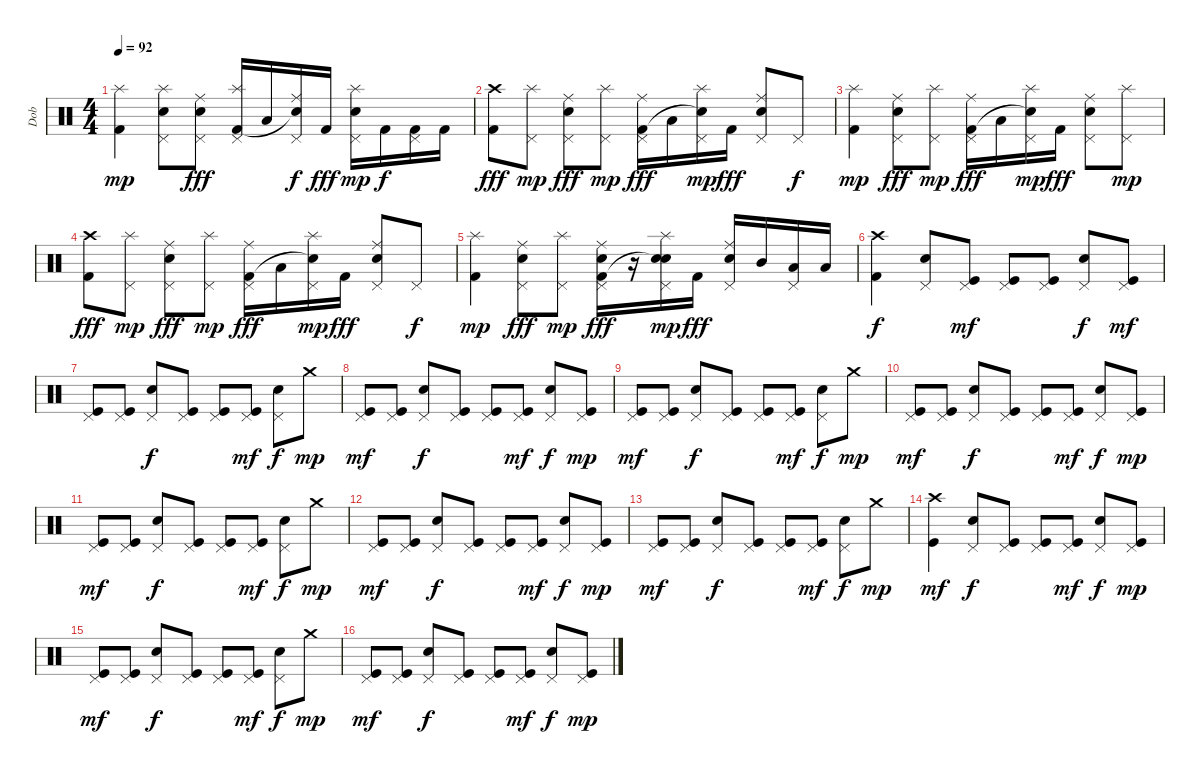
\track ("Dob" "Dob") {instrument percussion}
\staff {score}
\articulation defaults
\ts (4 4)
\tempo 92
\clef neutral
\ks c
("Kick (hit) 2" "Splash (hit)").4{dy mp} ("Electric Snare (hit)" "Splash (hit)" "Pedal Hi-Hat (hit)").8 ("Electric Snare (hit)" "Ride (middle)" "Pedal Hi-Hat (hit)").8{dy fff} ("Splash (hit)" "Kick (hit) 2" "Pedal Hi-Hat (hit)").16 "Low Tom (hit)".16 ("Ride (middle)" "Snare (hit)"{t} "Pedal Hi-Hat (hit)").16{dy f} "Kick (hit) 2".16{dy fff} ("Electric Snare (hit)" "Splash (hit)" "Pedal Hi-Hat (hit)").16{dy mp} "Kick (hit) 2".16{dy f} ("Kick (hit) 2" "Pedal Hi-Hat (hit)").16 "Kick (hit) 2".16 |
("Kick (hit) 2" "Crash high (hit)").8{dy fff} ("Splash (hit)" "Pedal Hi-Hat (hit)").8{dy mp} ("Electric Snare (hit)" "Ride (middle)" "Pedal Hi-Hat (hit)").8{dy fff} ("Splash (hit)" "Pedal Hi-Hat (hit)").8{dy mp} ("Ride (middle)" "Kick (hit) 2" "Pedal Hi-Hat (hit)").16{dy fff} "Low Tom (hit)".16 ("Splash (hit)" "Snare (hit)"{t} "Pedal Hi-Hat (hit)").16{dy mp} "Kick (hit) 2".16{dy fff} ("Electric Snare (hit)" "Ride (middle)" "Pedal Hi-Hat (hit)").8 "Pedal Hi-Hat (hit)".8{dy f} |
("Kick (hit) 2" "Splash (hit)").4{dy mp} ("Electric Snare (hit)" "Ride (middle)" "Pedal Hi-Hat (hit)").8{dy fff} ("Splash (hit)" "Pedal Hi-Hat (hit)").8{dy mp} ("Ride (middle)" "Kick (hit) 2" "Pedal Hi-Hat (hit)").16{dy fff} "Low Tom (hit)".16 ("Splash (hit)" "Snare (hit)"{t} "Pedal Hi-Hat (hit)").16{dy mp} "Kick (hit) 2".16{dy fff} ("Electric Snare (hit)" "Ride (middle)" "Pedal Hi-Hat (hit)").8 ("Splash (hit)" "Pedal Hi-Hat (hit)").8{dy mp} |
("Kick (hit) 2" "Crash high (hit)").8{dy fff} ("Splash (hit)" "Pedal Hi-Hat (hit)").8{dy mp} ("Electric Snare (hit)" "Ride (middle)" "Pedal Hi-Hat (hit)").8{dy fff} ("Splash (hit)" "Pedal Hi-Hat (hit)").8{dy mp} ("Ride (middle)" "Kick (hit) 2" "Pedal Hi-Hat (hit)").16{dy fff} "Low Tom (hit)".16 ("Splash (hit)" "Snare (hit)"{t} "Pedal Hi-Hat (hit)").16{dy mp} "Kick (hit) 2".16{dy fff} ("Electric Snare (hit)" "Ride (middle)" "Pedal Hi-Hat (hit)").8 "Pedal Hi-Hat (hit)".8{dy f} |
("Kick (hit) 2" "Splash (hit)").4{dy mp} ("Electric Snare (hit)" "Ride (middle)" "Pedal Hi-Hat (hit)").8{dy fff} ("Splash (hit)" "Pedal Hi-Hat (hit)").8{dy mp} ("Electric Snare (hit)" "Ride (middle)" "Kick (hit) 2" "Pedal Hi-Hat (hit)").16{dy fff} r.16 ("Electric Snare (hit)" "Splash (hit)" "Snare (hit)"{t} "Pedal Hi-Hat (hit)").16{dy mp} "Kick (hit) 2".16{dy fff} ("Electric Snare (hit)" "Ride (middle)" "Pedal Hi-Hat (hit)").16 "Mid Tom (hit)".16 ("Low Tom (hit)" "Pedal Hi-Hat (hit)").16 "Low Tom (hit)".16 |
("Kick (hit) 2" "Crash high (hit)").4{dy f} ("Electric Snare (hit)" "Pedal Hi-Hat (hit)").8 ("Kick (hit)" "Pedal Hi-Hat (hit)").8{dy mf} ("Kick (hit)" "Pedal Hi-Hat (hit)").8 ("Kick (hit)" "Pedal Hi-Hat (hit)").8 ("Electric Snare (hit)" "Pedal Hi-Hat (hit)").8{dy f} ("Kick (hit)" "Pedal Hi-Hat (hit)").8{dy mf} |
("Kick (hit)" "Pedal Hi-Hat (hit)").8 ("Kick (hit)" "Pedal Hi-Hat (hit)").8 ("Electric Snare (hit)" "Pedal Hi-Hat (hit)").8{dy f} ("Kick (hit)" "Pedal Hi-Hat (hit)").8 ("Kick (hit)" "Pedal Hi-Hat (hit)").8 ("Kick (hit)" "Pedal Hi-Hat (hit)").8{dy mf} ("Electric Snare (hit)" "Pedal Hi-Hat (hit)").8{dy f} "Crash medium (hit)".8{dy mp} |
("Kick (hit)" "Pedal Hi-Hat (hit)").8{dy mf} ("Kick (hit)" "Pedal Hi-Hat (hit)").8 ("Electric Snare (hit)" "Pedal Hi-Hat (hit)").8{dy f} ("Kick (hit)" "Pedal Hi-Hat (hit)").8 ("Kick (hit)" "Pedal Hi-Hat (hit)").8 ("Kick (hit)" "Pedal Hi-Hat (hit)").8{dy mf} ("Electric Snare (hit)" "Pedal Hi-Hat (hit)").8{dy f} ("Kick (hit)" "Pedal Hi-Hat (hit)").8{dy mp} |
("Kick (hit)" "Pedal Hi-Hat (hit)").8{dy mf} ("Kick (hit)" "Pedal Hi-Hat (hit)").8 ("Electric Snare (hit)" "Pedal Hi-Hat (hit)").8{dy f} ("Kick (hit)" "Pedal Hi-Hat (hit)").8 ("Kick (hit)" "Pedal Hi-Hat (hit)").8 ("Kick (hit)" "Pedal Hi-Hat (hit)").8{dy mf} ("Electric Snare (hit)" "Pedal Hi-Hat (hit)").8{dy f} "Crash medium (hit)".8{dy mp} |
("Kick (hit)" "Pedal Hi-Hat (hit)").8{dy mf} ("Kick (hit)" "Pedal Hi-Hat (hit)").8 ("Electric Snare (hit)" "Pedal Hi-Hat (hit)").8{dy f} ("Kick (hit)" "Pedal Hi-Hat (hit)").8 ("Kick (hit)" "Pedal Hi-Hat (hit)").8 ("Kick (hit)" "Pedal Hi-Hat (hit)").8{dy mf} ("Electric Snare (hit)" "Pedal Hi-Hat (hit)").8{dy f} ("Kick (hit)" "Pedal Hi-Hat (hit)").8{dy mp} |
("Kick (hit)" "Pedal Hi-Hat (hit)").8{dy mf} ("Kick (hit)" "Pedal Hi-Hat (hit)").8 ("Electric Snare (hit)" "Pedal Hi-Hat (hit)").8{dy f} ("Kick (hit)" "Pedal Hi-Hat (hit)").8 ("Kick (hit)" "Pedal Hi-Hat (hit)").8 ("Kick (hit)" "Pedal Hi-Hat (hit)").8{dy mf} ("Electric Snare (hit)" "Pedal Hi-Hat (hit)").8{dy f} "Crash medium (hit)".8{dy mp} |
("Kick (hit)" "Pedal Hi-Hat (hit)").8{dy mf} ("Kick (hit)" "Pedal Hi-Hat (hit)").8 ("Electric Snare (hit)" "Pedal Hi-Hat (hit)").8{dy f} ("Kick (hit)" "Pedal Hi-Hat (hit)").8 ("Kick (hit)" "Pedal Hi-Hat (hit)").8 ("Kick (hit)" "Pedal Hi-Hat (hit)").8{dy mf} ("Electric Snare (hit)" "Pedal Hi-Hat (hit)").8{dy f} ("Kick (hit)" "Pedal Hi-Hat (hit)").8{dy mp} |
("Kick (hit)" "Pedal Hi-Hat (hit)").8{dy mf} ("Kick (hit)" "Pedal Hi-Hat (hit)").8 ("Electric Snare (hit)" "Pedal Hi-Hat (hit)").8{dy f} ("Kick (hit)" "Pedal Hi-Hat (hit)").8 ("Kick (hit)" "Pedal Hi-Hat (hit)").8 ("Kick (hit)" "Pedal Hi-Hat (hit)").8{dy mf} ("Electric Snare (hit)" "Pedal Hi-Hat (hit)").8{dy f} "Crash medium (hit)".8{dy mp} |
("Kick (hit)" "Crash high (hit)").4{dy mf} ("Electric Snare (hit)" "Pedal Hi-Hat (hit)").8{dy f} ("Kick (hit)" "Pedal Hi-Hat (hit)").8 ("Kick (hit)" "Pedal Hi-Hat (hit)").8 ("Kick (hit)" "Pedal Hi-Hat (hit)").8{dy mf} ("Electric Snare (hit)" "Pedal Hi-Hat (hit)").8{dy f} ("Kick (hit)" "Pedal Hi-Hat (hit)").8{dy mp} |
("Kick (hit)" "Pedal Hi-Hat (hit)").8{dy mf} ("Kick (hit)" "Pedal Hi-Hat (hit)").8 ("Electric Snare (hit)" "Pedal Hi-Hat (hit)").8{dy f} ("Kick (hit)" "Pedal Hi-Hat (hit)").8 ("Kick (hit)" "Pedal Hi-Hat (hit)").8 ("Kick (hit)" "Pedal Hi-Hat (hit)").8{dy mf} ("Electric Snare (hit)" "Pedal Hi-Hat (hit)").8{dy f} "Crash medium (hit)".8{dy mp} |
("Kick (hit)" "Pedal Hi-Hat (hit)").8{dy mf} ("Kick (hit)" "Pedal Hi-Hat (hit)").8 ("Electric Snare (hit)" "Pedal Hi-Hat (hit)").8{dy f} ("Kick (hit)" "Pedal Hi-Hat (hit)").8 ("Kick (hit)" "Pedal Hi-Hat (hit)").8 ("Kick (hit)" "Pedal Hi-Hat (hit)").8{dy mf} ("Electric Snare (hit)" "Pedal Hi-Hat (hit)").8{dy f} ("Kick (hit)" "Pedal Hi-Hat (hit)").8{dy mp}
